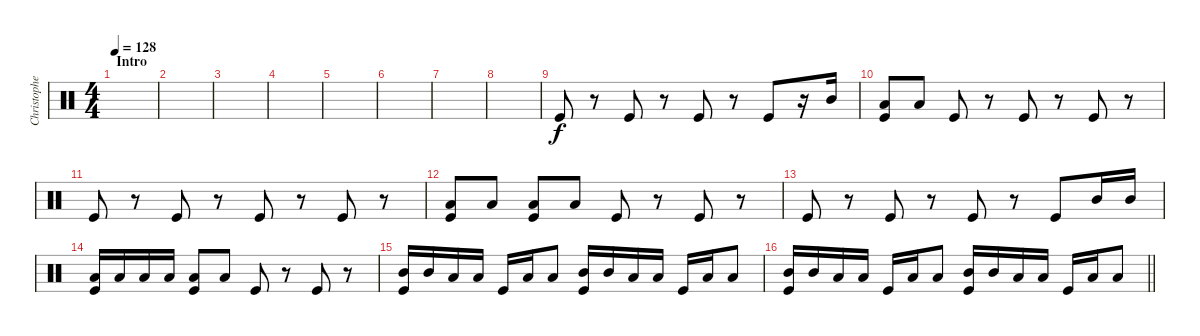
\track ("Christopher - Drums" "Christophe") {instrument percussion}
\staff {score}
\articulation defaults
\ts (4 4)
\section ("" "Intro")
\tempo 128
\clef neutral
\ks c
|
|
|
|
|
|
|
|
"Kick (hit)".8 r.8 "Kick (hit)".8 r.8 "Kick (hit)".8 r.8 "Kick (hit)".8 r.16 "Mid Tom (hit)".16 |
("Low Floor Tom (hit)" "Kick (hit)").8 "Low Floor Tom (hit)".8 "Kick (hit)".8 r.8 "Kick (hit)".8 r.8 "Kick (hit)".8 r.8 |
"Kick (hit)".8 r.8 "Kick (hit)".8 r.8 "Kick (hit)".8 r.8 "Kick (hit)".8 r.8 |
("Low Floor Tom (hit)" "Kick (hit)").8 "Low Floor Tom (hit)".8 ("Low Floor Tom (hit)" "Kick (hit)").8 "Low Floor Tom (hit)".8 "Kick (hit)".8 r.8 "Kick (hit)".8 r.8 |
"Kick (hit)".8 r.8 "Kick (hit)".8 r.8 "Kick (hit)".8 r.8 "Kick (hit)".8 "Mid Tom (hit)".16 "Mid Tom (hit)".16 |
("Low Floor Tom (hit)" "Kick (hit)").16 "Low Floor Tom (hit)".16 "Low Floor Tom (hit)".16 "Low Floor Tom (hit)".16 ("Low Floor Tom (hit)" "Kick (hit)").8 "Low Floor Tom (hit)".8 "Kick (hit)".8 r.8 "Kick (hit)".8 r.8 |
("Mid Tom (hit)" "Kick (hit)").16 "Mid Tom (hit)".16 "Low Tom (hit)".16 "Low Floor Tom (hit)".16 "Kick (hit)".16 "Low Tom (hit)".16 "Low Floor Tom (hit)".8 ("Mid Tom (hit)" "Kick (hit)").16 "Mid Tom (hit)".16 "Low Tom (hit)".16 "Low Floor Tom (hit)".16 "Kick (hit)".16 "Low Tom (hit)".16 "Low Floor Tom (hit)".8 |
\barLineRight lightlight
("Mid Tom (hit)" "Kick (hit)").16 "Mid Tom (hit)".16 "Low Tom (hit)".16 "Low Floor Tom (hit)".16 "Kick (hit)".16 "Low Tom (hit)".16 "Low Floor Tom (hit)".8 ("Mid Tom (hit)" "Kick (hit)").16 "Mid Tom (hit)".16 "Low Tom (hit)".16 "Low Floor Tom (hit)".16 "Kick (hit)".16 "Low Tom (hit)".16 "Low Floor Tom (hit)".8
